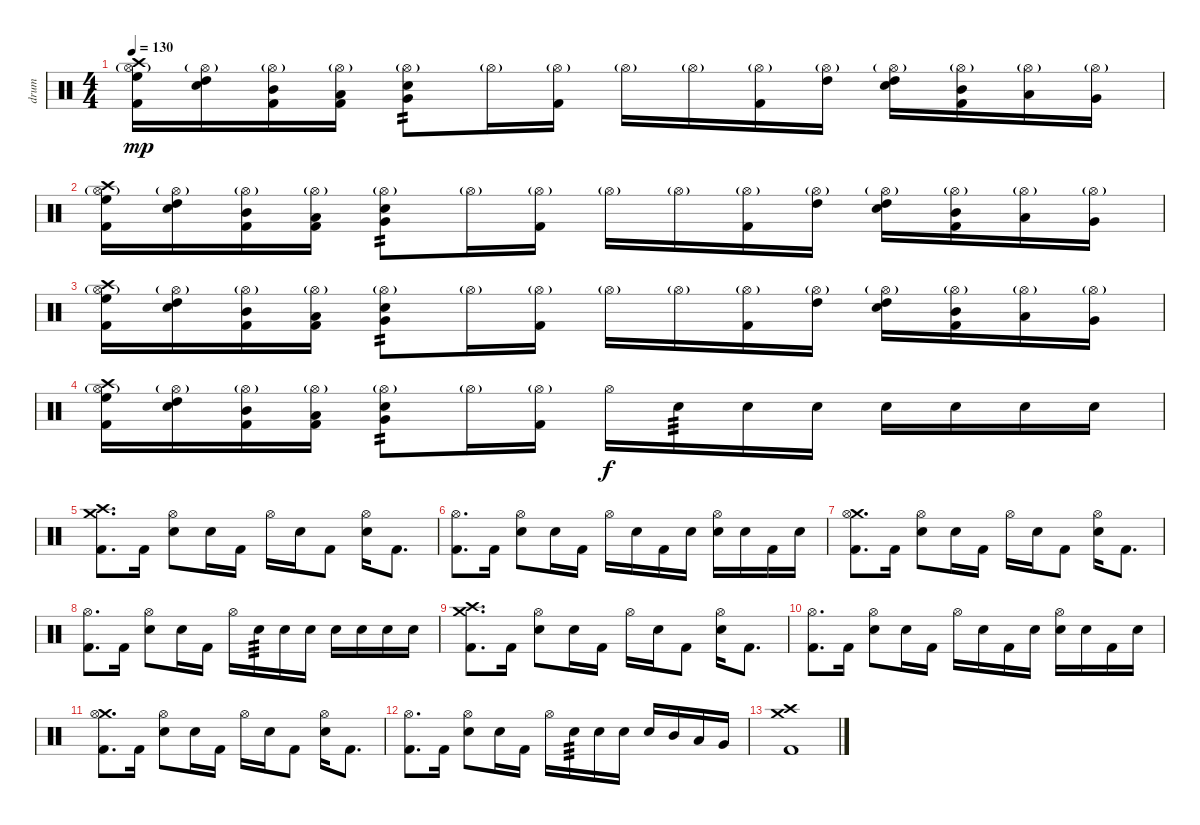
\track ("drum" "drum") {instrument percussion}
\staff {score}
\articulation defaults
\ts (4 4)
\tempo 130
\clef neutral
\ks c
("Crash high (hit)" "Hi-Hat (open)"{g} "High Floor Tom (hit)" "Kick (hit) 2").16{dy mp} ("Hi-Hat (open)"{g} "High Tom (hit)" "Electric Snare (hit)").16 ("Hi-Hat (open)"{g} "Mid Tom (hit)" "Kick (hit) 2").16 ("Hi-Hat (open)"{g} "Low Tom (hit)" "Kick (hit) 2").16 ("Hi-Hat (open)"{g} "Very Low Tom (hit)" "Electric Snare (hit)").8{tp 2} "Hi-Hat (open)"{g}.16 ("Hi-Hat (open)"{g} "Kick (hit) 2").16 "Hi-Hat (open)"{g}.16 "Hi-Hat (open)"{g}.16 ("Hi-Hat (open)"{g} "Kick (hit) 2").16 ("Hi-Hat (open)"{g} "High Tom (hit)").16 ("Hi-Hat (open)"{g} "High Tom (hit)" "Electric Snare (hit)").16 ("Hi-Hat (open)"{g} "Mid Tom (hit)" "Kick (hit) 2").16 ("Hi-Hat (open)"{g} "Low Tom (hit)").16 ("Hi-Hat (open)"{g} "Very Low Tom (hit)").16 |
("Crash high (hit)" "Hi-Hat (open)"{g} "High Floor Tom (hit)" "Kick (hit) 2").16 ("Hi-Hat (open)"{g} "High Tom (hit)" "Electric Snare (hit)").16 ("Hi-Hat (open)"{g} "Mid Tom (hit)" "Kick (hit) 2").16 ("Hi-Hat (open)"{g} "Low Tom (hit)" "Kick (hit) 2").16 ("Hi-Hat (open)"{g} "Very Low Tom (hit)" "Electric Snare (hit)").8{tp 2} "Hi-Hat (open)"{g}.16 ("Hi-Hat (open)"{g} "Kick (hit) 2").16 "Hi-Hat (open)"{g}.16 "Hi-Hat (open)"{g}.16 ("Hi-Hat (open)"{g} "Kick (hit) 2").16 ("Hi-Hat (open)"{g} "High Tom (hit)").16 ("Hi-Hat (open)"{g} "High Tom (hit)" "Electric Snare (hit)").16 ("Hi-Hat (open)"{g} "Mid Tom (hit)" "Kick (hit) 2").16 ("Hi-Hat (open)"{g} "Low Tom (hit)").16 ("Hi-Hat (open)"{g} "Very Low Tom (hit)").16 |
("Crash high (hit)" "Hi-Hat (open)"{g} "High Floor Tom (hit)" "Kick (hit) 2").16 ("Hi-Hat (open)"{g} "High Tom (hit)" "Electric Snare (hit)").16 ("Hi-Hat (open)"{g} "Mid Tom (hit)" "Kick (hit) 2").16 ("Hi-Hat (open)"{g} "Low Tom (hit)" "Kick (hit) 2").16 ("Hi-Hat (open)"{g} "Very Low Tom (hit)" "Electric Snare (hit)").8{tp 2} "Hi-Hat (open)"{g}.16 ("Hi-Hat (open)"{g} "Kick (hit) 2").16 "Hi-Hat (open)"{g}.16 "Hi-Hat (open)"{g}.16 ("Hi-Hat (open)"{g} "Kick (hit) 2").16 ("Hi-Hat (open)"{g} "High Tom (hit)").16 ("Hi-Hat (open)"{g} "High Tom (hit)" "Electric Snare (hit)").16 ("Hi-Hat (open)"{g} "Mid Tom (hit)" "Kick (hit) 2").16 ("Hi-Hat (open)"{g} "Low Tom (hit)").16 ("Hi-Hat (open)"{g} "Very Low Tom (hit)").16 |
("Crash high (hit)" "Hi-Hat (open)"{g} "High Floor Tom (hit)" "Kick (hit) 2").16 ("Hi-Hat (open)"{g} "High Tom (hit)" "Electric Snare (hit)").16 ("Hi-Hat (open)"{g} "Mid Tom (hit)" "Kick (hit) 2").16 ("Hi-Hat (open)"{g} "Low Tom (hit)" "Kick (hit) 2").16 ("Hi-Hat (open)"{g} "Very Low Tom (hit)" "Electric Snare (hit)").8{tp 2} "Hi-Hat (open)"{g}.16 ("Hi-Hat (open)"{g} "Kick (hit) 2").16 "Hi-Hat (open)".16{dy f} "Electric Snare (hit)".16{tp 3} "Electric Snare (hit)".16 "Electric Snare (hit)".16 "Electric Snare (hit)".16 "Electric Snare (hit)".16 "Electric Snare (hit)".16 "Electric Snare (hit)".16 |
("Crash medium (hit)" "Crash high (hit)" "Kick (hit) 2").8{d} "Kick (hit) 2".16 ("Hi-Hat (open)" "Electric Snare (hit)").8 "Electric Snare (hit)".16 "Kick (hit) 2".16 "Hi-Hat (open)".16 "Electric Snare (hit)".16 "Kick (hit) 2".8 ("Hi-Hat (open)" "Electric Snare (hit)").16 "Kick (hit) 2".8{d} |
("Hi-Hat (open)" "Kick (hit) 2").8{d} "Kick (hit) 2".16 ("Hi-Hat (open)" "Electric Snare (hit)").8 "Electric Snare (hit)".16 "Kick (hit) 2".16 "Hi-Hat (open)".16 "Electric Snare (hit)".16 "Kick (hit) 2".16 "Electric Snare (hit)".16 ("Hi-Hat (open)" "Electric Snare (hit)").16 "Electric Snare (hit)".16 "Kick (hit) 2".16 "Electric Snare (hit)".16 |
("Crash medium (hit)" "Hi-Hat (open)" "Kick (hit) 2").8{d} "Kick (hit) 2".16 ("Hi-Hat (open)" "Electric Snare (hit)").8 "Electric Snare (hit)".16 "Kick (hit) 2".16 "Hi-Hat (open)".16 "Electric Snare (hit)".16 "Kick (hit) 2".8 ("Hi-Hat (open)" "Electric Snare (hit)").16 "Kick (hit) 2".8{d} |
("Hi-Hat (open)" "Kick (hit) 2").8{d} "Kick (hit) 2".16 ("Hi-Hat (open)" "Electric Snare (hit)").8 "Electric Snare (hit)".16 "Kick (hit) 2".16 "Hi-Hat (open)".16 "Electric Snare (hit)".16{tp 3} "Electric Snare (hit)".16 "Electric Snare (hit)".16 "Electric Snare (hit)".16 "Electric Snare (hit)".16 "Electric Snare (hit)".16 "Electric Snare (hit)".16 |
("Crash medium (hit)" "Crash high (hit)" "Kick (hit) 2").8{d} "Kick (hit) 2".16 ("Hi-Hat (open)" "Electric Snare (hit)").8 "Electric Snare (hit)".16 "Kick (hit) 2".16 "Hi-Hat (open)".16 "Electric Snare (hit)".16 "Kick (hit) 2".8 ("Hi-Hat (open)" "Electric Snare (hit)").16 "Kick (hit) 2".8{d} |
("Hi-Hat (open)" "Kick (hit) 2").8{d} "Kick (hit) 2".16 ("Hi-Hat (open)" "Electric Snare (hit)").8 "Electric Snare (hit)".16 "Kick (hit) 2".16 "Hi-Hat (open)".16 "Electric Snare (hit)".16 "Kick (hit) 2".16 "Electric Snare (hit)".16 ("Hi-Hat (open)" "Electric Snare (hit)").16 "Electric Snare (hit)".16 "Kick (hit) 2".16 "Electric Snare (hit)".16 |
("Crash medium (hit)" "Hi-Hat (open)" "Kick (hit) 2").8{d} "Kick (hit) 2".16 ("Hi-Hat (open)" "Electric Snare (hit)").8 "Electric Snare (hit)".16 "Kick (hit) 2".16 "Hi-Hat (open)".16 "Electric Snare (hit)".16 "Kick (hit) 2".8 ("Hi-Hat (open)" "Electric Snare (hit)").16 "Kick (hit) 2".8{d} |
("Hi-Hat (open)" "Kick (hit) 2").8{d} "Kick (hit) 2".16 ("Hi-Hat (open)" "Electric Snare (hit)").8 "Electric Snare (hit)".16 "Kick (hit) 2".16 "Hi-Hat (open)".16 "Electric Snare (hit)".16{tp 3} "Electric Snare (hit)".16 "Electric Snare (hit)".16 "Electric Snare (hit)".16 "Mid Tom (hit)".16 "Low Tom (hit)".16 "Very Low Tom (hit)".16 |
("Crash medium (hit)" "Crash high (hit)" "Kick (hit) 2").1
